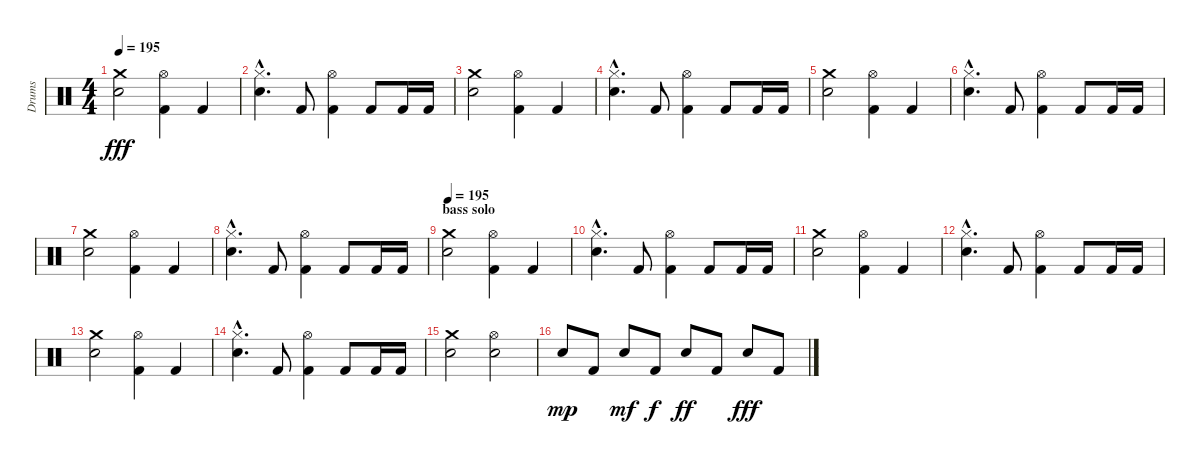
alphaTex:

\track ("Drums" "Drums") {instrument percussion}
\staff {score}
\articulation defaults
\ts (4 4)
\tempo 195
\clef neutral
\ks c
("Electric Snare (hit)" "Crash medium (hit)").2{dy fff} ("Kick (hit) 2" "Hi-Hat (open)").4 "Kick (hit) 2".4 |
("Hi-Hat (closed)"{hac} "Snare (hit) 2"{hac}).4{d} "Kick (hit) 2".8 ("Hi-Hat (open)" "Kick (hit) 2").4 "Kick (hit) 2".8 "Kick (hit) 2".16 "Kick (hit) 2".16 |
("Electric Snare (hit)" "Crash medium (hit)").2 ("Kick (hit) 2" "Hi-Hat (open)").4 "Kick (hit) 2".4 |
("Hi-Hat (closed)"{hac} "Snare (hit) 2"{hac}).4{d} "Kick (hit) 2".8 ("Hi-Hat (open)" "Kick (hit) 2").4 "Kick (hit) 2".8 "Kick (hit) 2".16 "Kick (hit) 2".16 |
("Electric Snare (hit)" "Crash medium (hit)").2 ("Kick (hit) 2" "Hi-Hat (open)").4 "Kick (hit) 2".4 |
("Hi-Hat (closed)"{hac} "Snare (hit) 2"{hac}).4{d} "Kick (hit) 2".8 ("Hi-Hat (open)" "Kick (hit) 2").4 "Kick (hit) 2".8 "Kick (hit) 2".16 "Kick (hit) 2".16 |
("Electric Snare (hit)" "Crash medium (hit)").2 ("Kick (hit) 2" "Hi-Hat (open)").4 "Kick (hit) 2".4 |
("Hi-Hat (closed)"{hac} "Snare (hit) 2"{hac}).4{d} "Kick (hit) 2".8 ("Hi-Hat (open)" "Kick (hit) 2").4 "Kick (hit) 2".8 "Kick (hit) 2".16 "Kick (hit) 2".16 |
\section ("" "bass solo")
\tempo 195
("Electric Snare (hit)" "Crash medium (hit)").2 ("Kick (hit) 2" "Hi-Hat (open)").4 "Kick (hit) 2".4 |
("Hi-Hat (closed)"{hac} "Snare (hit) 2"{hac}).4{d} "Kick (hit) 2".8 ("Hi-Hat (open)" "Kick (hit) 2").4 "Kick (hit) 2".8 "Kick (hit) 2".16 "Kick (hit) 2".16 |
("Electric Snare (hit)" "Crash medium (hit)").2 ("Kick (hit) 2" "Hi-Hat (open)").4 "Kick (hit) 2".4 |
("Hi-Hat (closed)"{hac} "Snare (hit) 2"{hac}).4{d} "Kick (hit) 2".8 ("Hi-Hat (open)" "Kick (hit) 2").4 "Kick (hit) 2".8 "Kick (hit) 2".16 "Kick (hit) 2".16 |
("Electric Snare (hit)" "Crash medium (hit)").2 ("Kick (hit) 2" "Hi-Hat (open)").4 "Kick (hit) 2".4 |
("Hi-Hat (closed)"{hac} "Snare (hit) 2"{hac}).4{d} "Kick (hit) 2".8 ("Hi-Hat (open)" "Kick (hit) 2").4 "Kick (hit) 2".8 "Kick (hit) 2".16 "Kick (hit) 2".16 |
("Electric Snare (hit)" "Crash medium (hit)").2 ("Electric Snare (hit)" "Hi-Hat (open)").2 |
"Electric Snare (hit)".8{dy mp} "Kick (hit) 2".8 "Electric Snare (hit)".8{dy mf} "Kick (hit) 2".8{dy f} "Electric Snare (hit)".8{dy ff} "Kick (hit) 2".8 "Electric Snare (hit)".8{dy fff} "Kick (hit) 2".8
